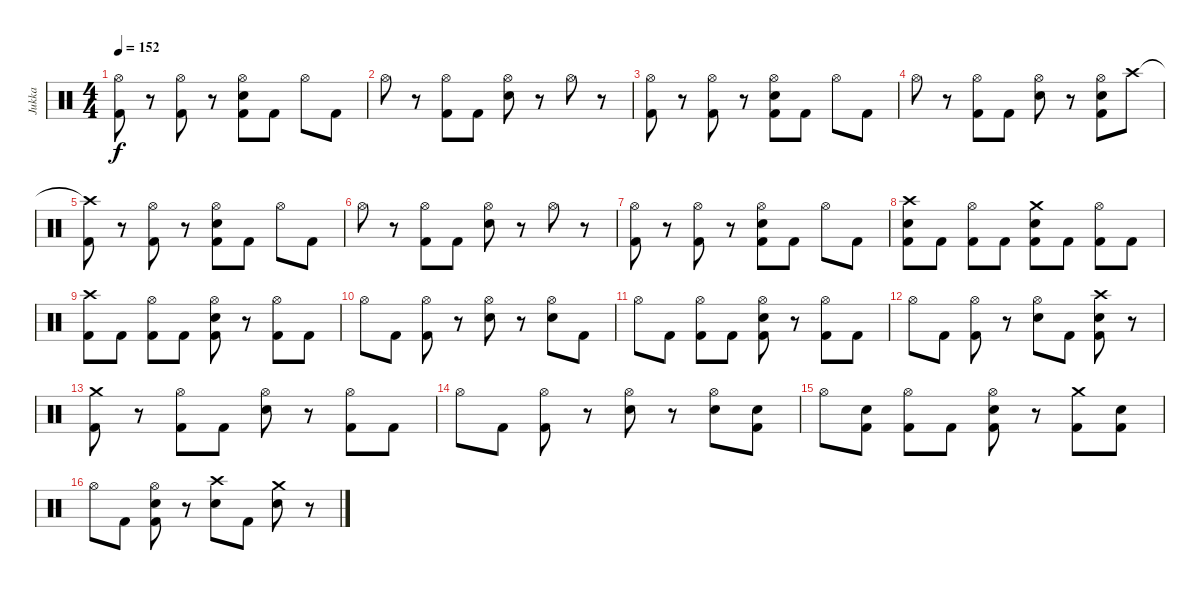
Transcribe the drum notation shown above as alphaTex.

\track ("Jukka" "Jukka") {instrument percussion}
\staff {score}
\articulation defaults
\ts (4 4)
\tempo 152
\clef neutral
\ks c
("Hi-Hat (open)" "Kick (hit) 2").8{dy f} r.8 ("Hi-Hat (open)" "Kick (hit) 2").8 r.8 ("Hi-Hat (open)" "Electric Snare (hit)" "Kick (hit) 2").8 "Kick (hit) 2".8 "Hi-Hat (open)".8 "Kick (hit) 2".8 |
"Hi-Hat (open)".8 r.8 ("Hi-Hat (open)" "Kick (hit) 2").8 "Kick (hit) 2".8 ("Hi-Hat (open)" "Electric Snare (hit)").8 r.8 "Hi-Hat (open)".8 r.8 |
("Hi-Hat (open)" "Kick (hit) 2").8 r.8 ("Hi-Hat (open)" "Kick (hit) 2").8 r.8 ("Hi-Hat (open)" "Electric Snare (hit)" "Kick (hit) 2").8 "Kick (hit) 2".8 "Hi-Hat (open)".8 "Kick (hit) 2".8 |
"Hi-Hat (open)".8 r.8 ("Hi-Hat (open)" "Kick (hit) 2").8 "Kick (hit) 2".8 ("Hi-Hat (open)" "Electric Snare (hit)").8 r.8 ("Hi-Hat (open)" "Electric Snare (hit)" "Kick (hit) 2").8 "Crash high (hit)".8 |
("Crash high (hit)"{t} "Kick (hit) 2").8 r.8 ("Hi-Hat (open)" "Kick (hit) 2").8 r.8 ("Hi-Hat (open)" "Electric Snare (hit)" "Kick (hit) 2").8 "Kick (hit) 2".8 "Hi-Hat (open)".8 "Kick (hit) 2".8 |
"Hi-Hat (open)".8 r.8 ("Hi-Hat (open)" "Kick (hit) 2").8 "Kick (hit) 2".8 ("Hi-Hat (open)" "Electric Snare (hit)").8 r.8 "Hi-Hat (open)".8 r.8 |
("Hi-Hat (open)" "Kick (hit) 2").8 r.8 ("Hi-Hat (open)" "Kick (hit) 2").8 r.8 ("Hi-Hat (open)" "Electric Snare (hit)" "Kick (hit) 2").8 "Kick (hit) 2".8 "Hi-Hat (open)".8 "Kick (hit) 2".8 |
("Crash high (hit)" "Electric Snare (hit)" "Kick (hit) 2").8 "Kick (hit) 2".8 ("Hi-Hat (open)" "Kick (hit) 2").8 "Kick (hit) 2".8 ("Crash medium (hit)" "Electric Snare (hit)" "Kick (hit) 2").8 "Kick (hit) 2".8 ("Hi-Hat (open)" "Kick (hit) 2").8 "Kick (hit) 2".8 |
("Crash high (hit)" "Kick (hit) 2").8 "Kick (hit) 2".8 ("Hi-Hat (open)" "Kick (hit) 2").8 "Kick (hit) 2".8 ("Hi-Hat (open)" "Electric Snare (hit)" "Kick (hit) 2").8 r.8 ("Hi-Hat (open)" "Kick (hit) 2").8 "Kick (hit) 2".8 |
"Hi-Hat (open)".8 "Kick (hit) 2".8 ("Hi-Hat (open)" "Kick (hit) 2").8 r.8 ("Hi-Hat (open)" "Electric Snare (hit)").8 r.8 ("Hi-Hat (open)" "Electric Snare (hit)").8 "Kick (hit) 2".8 |
"Hi-Hat (open)".8 "Kick (hit) 2".8 ("Hi-Hat (open)" "Kick (hit) 2").8 "Kick (hit) 2".8 ("Hi-Hat (open)" "Electric Snare (hit)" "Kick (hit) 2").8 r.8 ("Hi-Hat (open)" "Kick (hit) 2").8 "Kick (hit) 2".8 |
"Hi-Hat (open)".8 "Kick (hit) 2".8 ("Hi-Hat (open)" "Kick (hit) 2").8 r.8 ("Hi-Hat (open)" "Electric Snare (hit)").8 "Kick (hit) 2".8 ("Crash high (hit)" "Electric Snare (hit)" "Kick (hit) 2").8 r.8 |
("Crash medium (hit)" "Kick (hit) 2").8 r.8 ("Hi-Hat (open)" "Kick (hit) 2").8 "Kick (hit) 2".8 ("Hi-Hat (open)" "Electric Snare (hit)").8 r.8 ("Hi-Hat (open)" "Kick (hit) 2").8 "Kick (hit) 2".8 |
"Hi-Hat (open)".8 "Kick (hit) 2".8 ("Hi-Hat (open)" "Kick (hit) 2").8 r.8 ("Hi-Hat (open)" "Electric Snare (hit)").8 r.8 ("Hi-Hat (open)" "Electric Snare (hit)").8 ("Electric Snare (hit)" "Kick (hit) 2").8 |
"Hi-Hat (open)".8 ("Electric Snare (hit)" "Kick (hit) 2").8 ("Hi-Hat (open)" "Kick (hit) 2").8 "Kick (hit) 2".8 ("Hi-Hat (open)" "Electric Snare (hit)" "Kick (hit) 2").8 r.8 ("Crash medium (hit)" "Kick (hit) 2").8 ("Electric Snare (hit)" "Kick (hit) 2").8 |
"Hi-Hat (open)".8 "Kick (hit) 2".8 ("Hi-Hat (open)" "Electric Snare (hit)" "Kick (hit) 2").8 r.8 ("Crash high (hit)" "Electric Snare (hit)").8 "Kick (hit) 2".8 ("Crash medium (hit)" "Electric Snare (hit)").8 r.8
